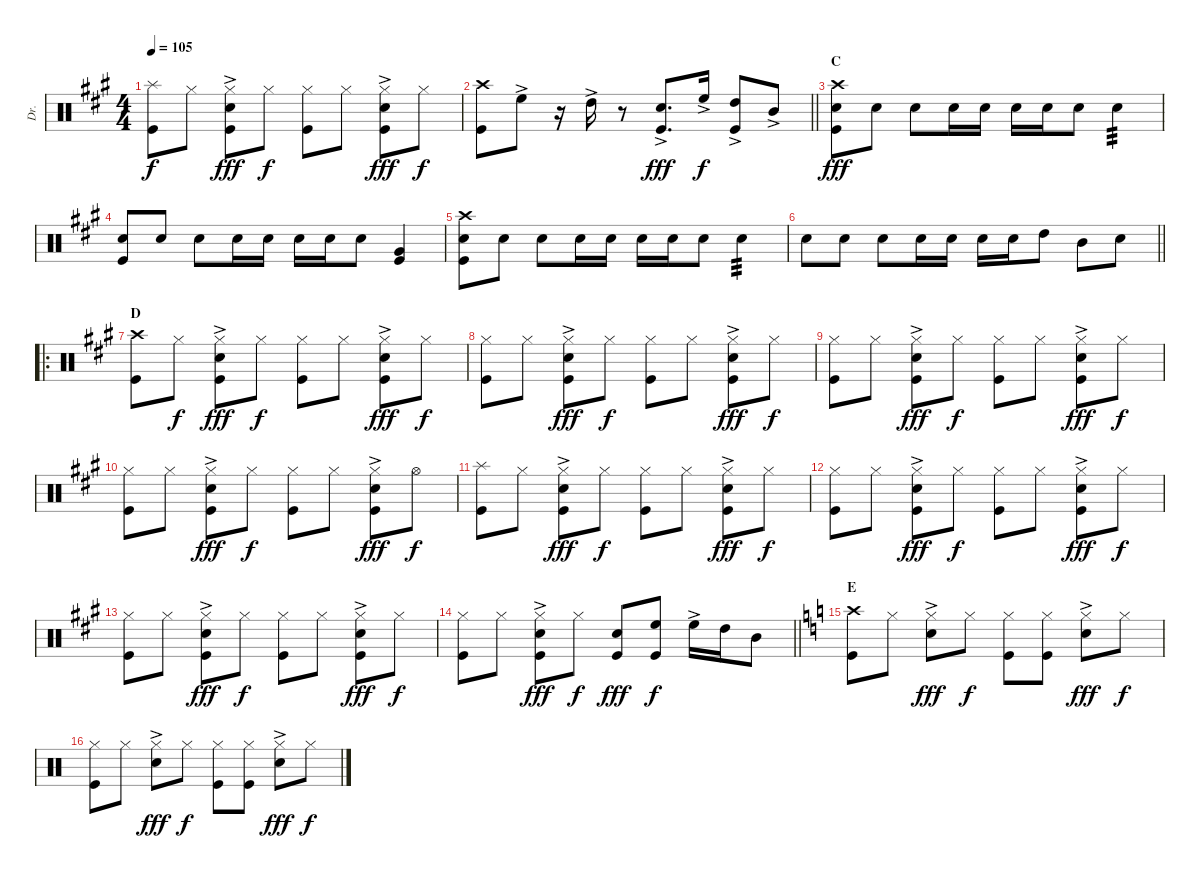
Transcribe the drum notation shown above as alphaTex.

\track ("Dr." "Dr.") {instrument percussion}
\staff {score}
\articulation defaults
\ts (4 4)
\tempo 105
\clef neutral
\ks a
("Splash (hit)" "Kick (hit)").8{dy f} "Hi-Hat (closed)".8 ("Hi-Hat (closed)"{ac} "Snare (hit) 2"{ac} "Kick (hit)").8{dy fff} "Hi-Hat (closed)".8{dy f} ("Hi-Hat (closed)" "Kick (hit)").8 "Hi-Hat (closed)".8 ("Hi-Hat (closed)"{ac} "Snare (hit) 2"{ac} "Kick (hit)").8{dy fff} "Hi-Hat (closed)".8{dy f} |
\barLineRight lightlight
("Crash high (hit)" "Kick (hit)").8 "High Floor Tom (hit)"{ac}.8 r.16 "High Tom (hit)"{ac}.16 r.8 ("Snare (hit) 2"{ac} "Kick (hit)"{ac}).8{d dy fff} "High Floor Tom (hit)"{ac}.16{dy f} ("High Tom (hit)"{ac} "Kick (hit)").8 "Mid Tom (hit)"{ac}.8 |
\section ("" "C")
("Snare (hit) 2" "Kick (hit)" "Crash high (hit)").8{dy fff} "Snare (hit) 2".8 "Snare (hit) 2".8 "Snare (hit) 2".16 "Snare (hit) 2".16 "Snare (hit) 2".16 "Snare (hit) 2".16 "Snare (hit) 2".8 "Snare (hit) 2".4{tp 3} |
("Snare (hit) 2" "Kick (hit)").8 "Snare (hit) 2".8 "Snare (hit) 2".8 "Snare (hit) 2".16 "Snare (hit) 2".16 "Snare (hit) 2".16 "Snare (hit) 2".16 "Snare (hit) 2".8 ("Very Low Tom (hit)" "Kick (hit)").4 |
("Snare (hit) 2" "Kick (hit)" "Crash high (hit)").8 "Snare (hit) 2".8 "Snare (hit) 2".8 "Snare (hit) 2".16 "Snare (hit) 2".16 "Snare (hit) 2".16 "Snare (hit) 2".16 "Snare (hit) 2".8 "Snare (hit) 2".4{tp 3} |
\barLineRight lightlight "Snare (hit) 2".8 "Snare (hit) 2".8 "Snare (hit) 2".8 "Snare (hit) 2".16 "Snare (hit) 2".16 "Snare (hit) 2".16 "Snare (hit) 2".16 "High Tom (hit)".8 "Mid Tom (hit)".8 "Snare (hit) 2".8
|
\ro
\section ("" "D")
("Crash high (hit)" "Kick (hit)").8 "Hi-Hat (closed)".8{dy f} ("Hi-Hat (closed)"{ac} "Snare (hit) 2"{ac} "Kick (hit)").8{dy fff} "Hi-Hat (closed)".8{dy f} ("Hi-Hat (closed)" "Kick (hit)").8 "Hi-Hat (closed)".8 ("Hi-Hat (closed)"{ac} "Snare (hit) 2"{ac} "Kick (hit)").8{dy fff} "Hi-Hat (closed)".8{dy f} |
("Hi-Hat (closed)" "Kick (hit)").8 "Hi-Hat (closed)".8 ("Hi-Hat (closed)"{ac} "Snare (hit) 2"{ac} "Kick (hit)").8{dy fff} "Hi-Hat (closed)".8{dy f} ("Hi-Hat (closed)" "Kick (hit)").8 "Hi-Hat (closed)".8 ("Hi-Hat (closed)"{ac} "Snare (hit) 2"{ac} "Kick (hit)").8{dy fff} "Hi-Hat (closed)".8{dy f} |
("Hi-Hat (closed)" "Kick (hit)").8 "Hi-Hat (closed)".8 ("Hi-Hat (closed)"{ac} "Snare (hit) 2"{ac} "Kick (hit)").8{dy fff} "Hi-Hat (closed)".8{dy f} ("Hi-Hat (closed)" "Kick (hit)").8 "Hi-Hat (closed)".8 ("Hi-Hat (closed)"{ac} "Snare (hit) 2"{ac} "Kick (hit)").8{dy fff} "Hi-Hat (closed)".8{dy f} |
("Hi-Hat (closed)" "Kick (hit)").8 "Hi-Hat (closed)".8 ("Hi-Hat (closed)"{ac} "Snare (hit) 2"{ac} "Kick (hit)").8{dy fff} "Hi-Hat (closed)".8{dy f} ("Hi-Hat (closed)" "Kick (hit)").8 "Hi-Hat (closed)".8 ("Hi-Hat (closed)"{ac} "Snare (hit) 2"{ac} "Kick (hit)").8{dy fff} "Hi-Hat (open)".8{dy f} |
("Splash (hit)" "Kick (hit)").8 "Hi-Hat (closed)".8 ("Hi-Hat (closed)"{ac} "Snare (hit) 2"{ac} "Kick (hit)").8{dy fff} "Hi-Hat (closed)".8{dy f} ("Hi-Hat (closed)" "Kick (hit)").8 "Hi-Hat (closed)".8 ("Hi-Hat (closed)"{ac} "Snare (hit) 2"{ac} "Kick (hit)").8{dy fff} "Hi-Hat (closed)".8{dy f} |
("Hi-Hat (closed)" "Kick (hit)").8 "Hi-Hat (closed)".8 ("Hi-Hat (closed)"{ac} "Snare (hit) 2"{ac} "Kick (hit)").8{dy fff} "Hi-Hat (closed)".8{dy f} ("Hi-Hat (closed)" "Kick (hit)").8 "Hi-Hat (closed)".8 ("Hi-Hat (closed)"{ac} "Snare (hit) 2"{ac} "Kick (hit)").8{dy fff} "Hi-Hat (closed)".8{dy f} |
("Hi-Hat (closed)" "Kick (hit)").8 "Hi-Hat (closed)".8 ("Hi-Hat (closed)"{ac} "Snare (hit) 2"{ac} "Kick (hit)").8{dy fff} "Hi-Hat (closed)".8{dy f} ("Hi-Hat (closed)" "Kick (hit)").8 "Hi-Hat (closed)".8 ("Hi-Hat (closed)"{ac} "Snare (hit) 2"{ac} "Kick (hit)").8{dy fff} "Hi-Hat (closed)".8{dy f} |
\barLineRight lightlight
("Hi-Hat (closed)" "Kick (hit)").8 "Hi-Hat (closed)".8 ("Hi-Hat (closed)"{ac} "Snare (hit) 2"{ac} "Kick (hit)").8{dy fff} "Hi-Hat (closed)".8{dy f} ("Snare (hit) 2" "Kick (hit)").8{dy fff} ("High Floor Tom (hit)" "Kick (hit)").8{dy f} "High Floor Tom (hit)"{ac}.16 "High Tom (hit)".16 "Mid Tom (hit)".8 |
\section ("" "E")
\ks c
("Crash high (hit)" "Kick (hit)").8 "Hi-Hat (closed)".8 ("Hi-Hat (closed)"{ac} "Snare (hit) 2"{ac}).8{dy fff} "Hi-Hat (closed)".8{dy f} ("Hi-Hat (closed)" "Kick (hit)").8 ("Hi-Hat (closed)" "Kick (hit)").8 ("Hi-Hat (closed)"{ac} "Snare (hit) 2"{ac}).8{dy fff} "Hi-Hat (closed)".8{dy f} |
("Hi-Hat (closed)" "Kick (hit)").8 "Hi-Hat (closed)".8 ("Hi-Hat (closed)"{ac} "Snare (hit) 2"{ac}).8{dy fff} "Hi-Hat (closed)".8{dy f} ("Hi-Hat (closed)" "Kick (hit)").8 ("Hi-Hat (closed)" "Kick (hit)").8 ("Hi-Hat (closed)"{ac} "Snare (hit) 2"{ac}).8{dy fff} "Hi-Hat (closed)".8{dy f}
